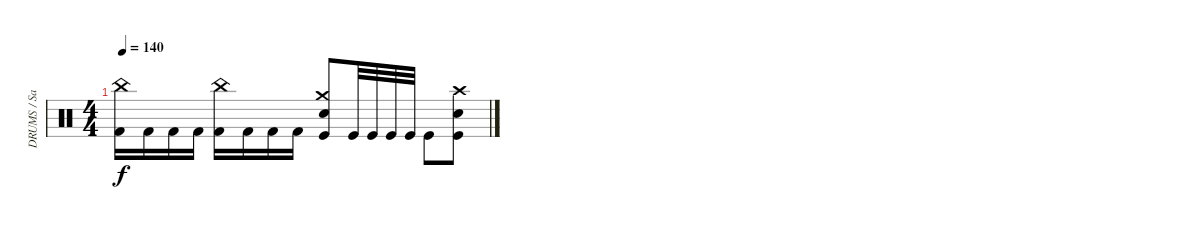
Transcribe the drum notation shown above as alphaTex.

\track ("DRUMS / Sasha" "DRUMS / Sa") {instrument percussion}
\staff {score}
\articulation defaults
\ts (4 4)
\tempo 140
\clef neutral
\ks c
("China (hit)" "Kick (hit) 2").16{dy f} "Kick (hit) 2".16 "Kick (hit) 2".16 "Kick (hit) 2".16 ("China (hit)" "Kick (hit) 2").16 "Kick (hit) 2".16 "Kick (hit) 2".16 "Kick (hit) 2".16 ("Snare (hit) 2" "Crash medium (hit)" "Kick (hit)").8 "Kick (hit)".32 "Kick (hit)".32 "Kick (hit)".32 "Kick (hit)".32 "Kick (hit)".8 ("Kick (hit)" "Electric Snare (hit)" "Crash high (hit)").8
